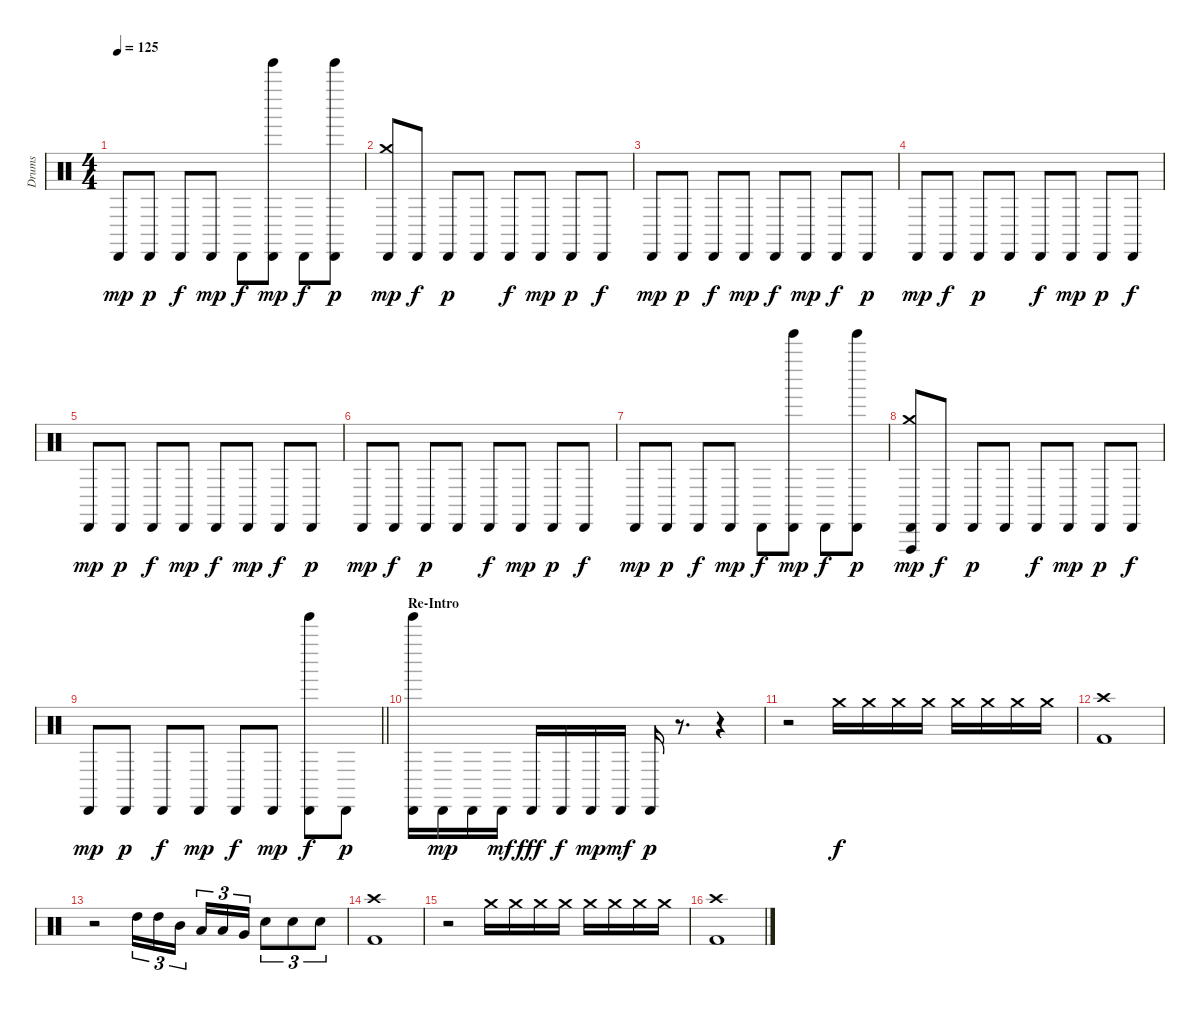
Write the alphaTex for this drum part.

\track ("Drums" "Drums") {instrument percussion}
\staff {score}
\articulation defaults
\ts (4 4)
\tempo 125
\clef neutral
\ks c "Cabasa (hit)".8{dy mp} "Cabasa (hit)".8{dy p} "Cabasa (hit)".8{dy f} "Cabasa (hit)".8{dy mp} "Cabasa (hit)".8{dy f}
("Tinkle Bell (hit)" "Cabasa (hit)").8{dy mp} "Cabasa (hit)".8{dy f} ("Tinkle Bell (hit)" "Cabasa (hit)").8{dy p} |
("Crash medium (hit)" "Cabasa (hit)").8{dy mp} "Cabasa (hit)".8{dy f} "Cabasa (hit)".8{dy p} "Cabasa (hit)".8 "Cabasa (hit)".8{dy f} "Cabasa (hit)".8{dy mp} "Cabasa (hit)".8{dy p} "Cabasa (hit)".8{dy f} |
"Cabasa (hit)".8{dy mp} "Cabasa (hit)".8{dy p} "Cabasa (hit)".8{dy f} "Cabasa (hit)".8{dy mp} "Cabasa (hit)".8{dy f} "Cabasa (hit)".8{dy mp} "Cabasa (hit)".8{dy f} "Cabasa (hit)".8{dy p} |
"Cabasa (hit)".8{dy mp} "Cabasa (hit)".8{dy f} "Cabasa (hit)".8{dy p} "Cabasa (hit)".8 "Cabasa (hit)".8{dy f} "Cabasa (hit)".8{dy mp} "Cabasa (hit)".8{dy p} "Cabasa (hit)".8{dy f} |
"Cabasa (hit)".8{dy mp} "Cabasa (hit)".8{dy p} "Cabasa (hit)".8{dy f} "Cabasa (hit)".8{dy mp} "Cabasa (hit)".8{dy f} "Cabasa (hit)".8{dy mp} "Cabasa (hit)".8{dy f} "Cabasa (hit)".8{dy p} |
"Cabasa (hit)".8{dy mp} "Cabasa (hit)".8{dy f} "Cabasa (hit)".8{dy p} "Cabasa (hit)".8 "Cabasa (hit)".8{dy f} "Cabasa (hit)".8{dy mp} "Cabasa (hit)".8{dy p} "Cabasa (hit)".8{dy f} |
"Cabasa (hit)".8{dy mp} "Cabasa (hit)".8{dy p} "Cabasa (hit)".8{dy f} "Cabasa (hit)".8{dy mp} "Cabasa (hit)".8{dy f} ("Tinkle Bell (hit)" "Cabasa (hit)").8{dy mp} "Cabasa (hit)".8{dy f} ("Tinkle Bell (hit)" "Cabasa (hit)").8{dy p} |
("Crash medium (hit)" "Cabasa (hit)" "Vibraslap (hit)").8{dy mp} "Cabasa (hit)".8{dy f} "Cabasa (hit)".8{dy p} "Cabasa (hit)".8 "Cabasa (hit)".8{dy f} "Cabasa (hit)".8{dy mp} "Cabasa (hit)".8{dy p} "Cabasa (hit)".8{dy f} |
\barLineRight lightlight "Cabasa (hit)".8{dy mp} "Cabasa (hit)".8{dy p} "Cabasa (hit)".8{dy f} "Cabasa (hit)".8{dy mp} "Cabasa (hit)".8{dy f} "Cabasa (hit)".8{dy mp}
("Tinkle Bell (hit)" "Cabasa (hit)").8{dy f} "Cabasa (hit)".8{dy p} |
\section ("" "Re-Intro")
("Tinkle Bell (hit)" "Cabasa (hit)").16 "Cabasa (hit)".16{dy mp} "Cabasa (hit)".16 "Cabasa (hit)".16{dy mf} "Cabasa (hit)".16{dy fff} "Cabasa (hit)".16{dy f} "Cabasa (hit)".16{dy mp} "Cabasa (hit)".16{dy mf} "Cabasa (hit)".16{dy p} r.8{d} r.4 |
r.2 "Crash medium (hit)".16{dy f} "Crash medium (hit)".16 "Crash medium (hit)".16 "Crash medium (hit)".16 "Crash medium (hit)".16 "Crash medium (hit)".16 "Crash medium (hit)".16 "Crash medium (hit)".16 |
("Crash high (hit)" "Kick (hit) 2").1 |
r.2 "High Tom (hit)".16{tu (3 2)} "High Tom (hit)".16{tu (3 2)} "Mid Tom (hit)".16{tu (3 2) beam splitsecondary} "Low Tom (hit)".16{tu (3 2)} "Low Tom (hit)".16{tu (3 2)} "Very Low Tom (hit)".16{tu (3 2)} "Electric Snare (hit)".8{tu (3 2)} "Electric Snare (hit)".8{tu (3 2)} "Electric Snare (hit)".8{tu (3 2)} |
("Crash high (hit)" "Kick (hit) 2").1 |
r.2 "Crash medium (hit)".16 "Crash medium (hit)".16 "Crash medium (hit)".16 "Crash medium (hit)".16 "Crash medium (hit)".16 "Crash medium (hit)".16 "Crash medium (hit)".16 "Crash medium (hit)".16 |
("Crash high (hit)" "Kick (hit) 2").1
